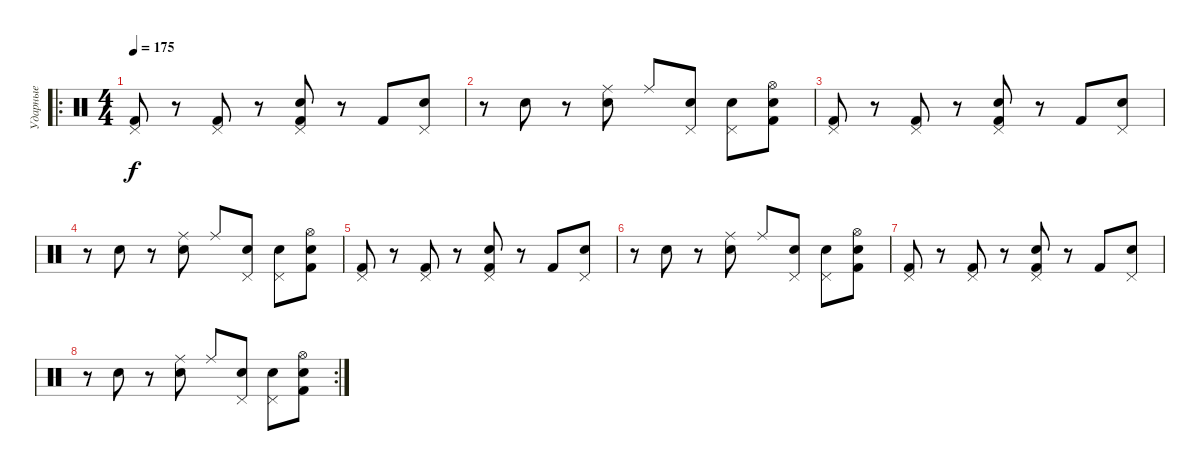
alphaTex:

\track ("Ударные" "Ударные") {instrument percussion}
\staff {score}
\articulation defaults
\ro
\ts (4 4)
\tempo 175
\clef neutral
\ks c
("Pedal Hi-Hat (hit)" "Kick (hit) 2").8{dy f} r.8 ("Pedal Hi-Hat (hit)" "Kick (hit) 2").8 r.8 ("Pedal Hi-Hat (hit)" "Electric Snare (hit)" "Kick (hit) 2").8 r.8 "Kick (hit) 2".8 ("Pedal Hi-Hat (hit)" "Snare (hit) 2").8 |
r.8 "Snare (hit) 2".8 r.8 ("Ride (middle)" "Snare (hit) 2").8 "Ride (middle)".8 ("Pedal Hi-Hat (hit)" "Electric Snare (hit)").8 ("Pedal Hi-Hat (hit)" "Electric Snare (hit)").8 ("Hi-Hat (open)" "Electric Snare (hit)" "Kick (hit) 2").8 |
("Pedal Hi-Hat (hit)" "Kick (hit) 2").8 r.8 ("Pedal Hi-Hat (hit)" "Kick (hit) 2").8 r.8 ("Pedal Hi-Hat (hit)" "Electric Snare (hit)" "Kick (hit) 2").8 r.8 "Kick (hit) 2".8 ("Pedal Hi-Hat (hit)" "Snare (hit) 2").8 |
r.8 "Snare (hit) 2".8 r.8 ("Ride (middle)" "Snare (hit) 2").8 "Ride (middle)".8 ("Pedal Hi-Hat (hit)" "Electric Snare (hit)").8 ("Pedal Hi-Hat (hit)" "Electric Snare (hit)").8 ("Hi-Hat (open)" "Electric Snare (hit)" "Kick (hit) 2").8 |
("Pedal Hi-Hat (hit)" "Kick (hit) 2").8 r.8 ("Pedal Hi-Hat (hit)" "Kick (hit) 2").8 r.8 ("Pedal Hi-Hat (hit)" "Electric Snare (hit)" "Kick (hit) 2").8 r.8 "Kick (hit) 2".8 ("Pedal Hi-Hat (hit)" "Snare (hit) 2").8 |
r.8 "Snare (hit) 2".8 r.8 ("Ride (middle)" "Snare (hit) 2").8 "Ride (middle)".8 ("Pedal Hi-Hat (hit)" "Electric Snare (hit)").8 ("Pedal Hi-Hat (hit)" "Electric Snare (hit)").8 ("Hi-Hat (open)" "Electric Snare (hit)" "Kick (hit) 2").8 |
("Pedal Hi-Hat (hit)" "Kick (hit) 2").8 r.8 ("Pedal Hi-Hat (hit)" "Kick (hit) 2").8 r.8 ("Pedal Hi-Hat (hit)" "Electric Snare (hit)" "Kick (hit) 2").8 r.8 "Kick (hit) 2".8 ("Pedal Hi-Hat (hit)" "Snare (hit) 2").8 |
\rc 2
r.8 "Snare (hit) 2".8 r.8 ("Ride (middle)" "Snare (hit) 2").8 "Ride (middle)".8 ("Pedal Hi-Hat (hit)" "Electric Snare (hit)").8 ("Pedal Hi-Hat (hit)" "Electric Snare (hit)").8 ("Hi-Hat (open)" "Electric Snare (hit)" "Kick (hit) 2").8
